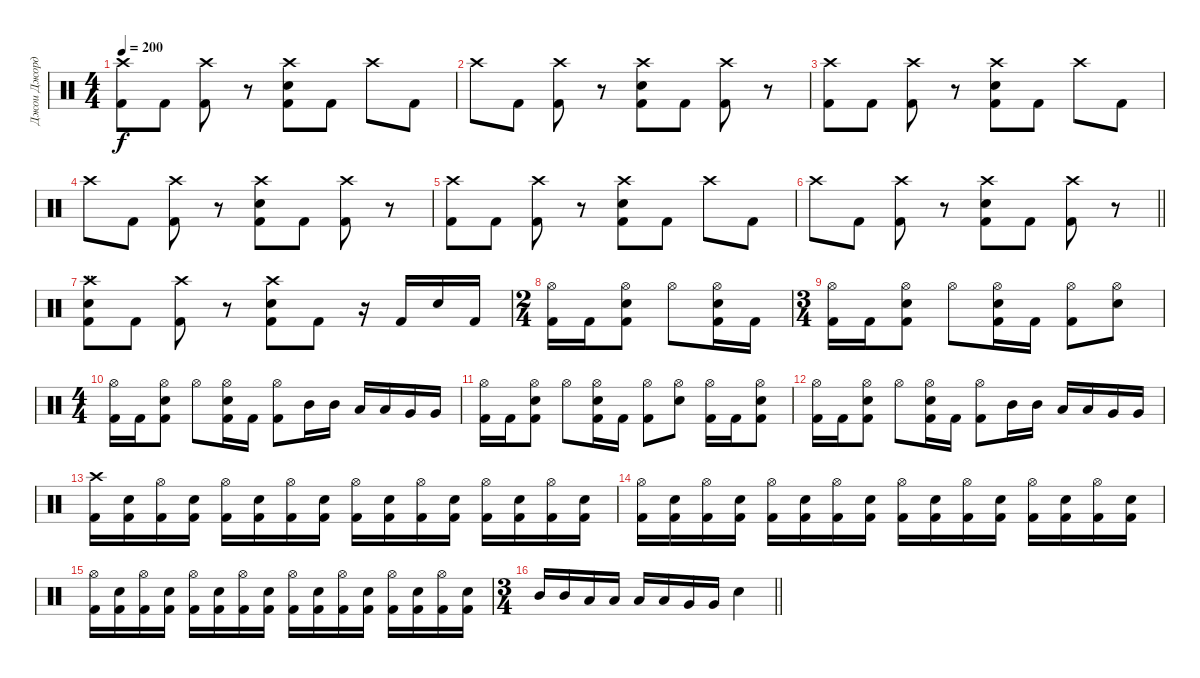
\track ("Джои Джордисон" "Джои Джорд") {instrument percussion}
\staff {score}
\articulation defaults
\ts (4 4)
\tempo 200
\clef neutral
\ks c
("Crash high (hit)" "Kick (hit) 2").8{dy f} "Kick (hit) 2".8 ("Crash high (hit)" "Kick (hit) 2").8 r.8 ("Crash high (hit)" "Electric Snare (hit)" "Kick (hit) 2").8 "Kick (hit) 2".8 "Crash high (hit)".8 "Kick (hit) 2".8 |
"Crash high (hit)".8 "Kick (hit) 2".8 ("Crash high (hit)" "Kick (hit) 2").8 r.8 ("Crash high (hit)" "Electric Snare (hit)" "Kick (hit) 2").8 "Kick (hit) 2".8 ("Crash high (hit)" "Kick (hit) 2").8 r.8 |
("Crash high (hit)" "Kick (hit) 2").8 "Kick (hit) 2".8 ("Crash high (hit)" "Kick (hit) 2").8 r.8 ("Crash high (hit)" "Electric Snare (hit)" "Kick (hit) 2").8 "Kick (hit) 2".8 "Crash high (hit)".8 "Kick (hit) 2".8 |
"Crash high (hit)".8 "Kick (hit) 2".8 ("Crash high (hit)" "Kick (hit) 2").8 r.8 ("Crash high (hit)" "Electric Snare (hit)" "Kick (hit) 2").8 "Kick (hit) 2".8 ("Crash high (hit)" "Kick (hit) 2").8 r.8 |
("Crash high (hit)" "Kick (hit) 2").8 "Kick (hit) 2".8 ("Crash high (hit)" "Kick (hit) 2").8 r.8 ("Crash high (hit)" "Electric Snare (hit)" "Kick (hit) 2").8 "Kick (hit) 2".8 "Crash high (hit)".8 "Kick (hit) 2".8 |
\barLineRight lightlight "Crash high (hit)".8 "Kick (hit) 2".8
("Crash high (hit)" "Kick (hit) 2").8 r.8 ("Crash high (hit)" "Electric Snare (hit)" "Kick (hit) 2").8 "Kick (hit) 2".8 ("Crash high (hit)" "Kick (hit) 2").8 r.8 |
\section ("" "...")
("Crash high (hit)" "Electric Snare (hit)" "Kick (hit) 2").8 "Kick (hit) 2".8 ("Crash high (hit)" "Kick (hit) 2").8 r.8 ("Crash high (hit)" "Electric Snare (hit)" "Kick (hit) 2").8 "Kick (hit) 2".8 r.16 "Kick (hit) 2".16 "Electric Snare (hit)".16 "Kick (hit) 2".16 |
\ts (2 4)
("Hi-Hat (open)" "Kick (hit) 2").16 "Kick (hit) 2".16 ("Hi-Hat (open)" "Electric Snare (hit)" "Kick (hit) 2").8 "Hi-Hat (open)".8 ("Hi-Hat (open)" "Electric Snare (hit)" "Kick (hit) 2").16 "Kick (hit) 2".16 |
\ts (3 4)
("Hi-Hat (open)" "Kick (hit) 2").16 "Kick (hit) 2".16 ("Hi-Hat (open)" "Electric Snare (hit)" "Kick (hit) 2").8 "Hi-Hat (open)".8 ("Hi-Hat (open)" "Electric Snare (hit)" "Kick (hit) 2").16 "Kick (hit) 2".16 ("Hi-Hat (open)" "Kick (hit) 2").8 ("Hi-Hat (open)" "Electric Snare (hit)").8 |
\ts (4 4)
("Hi-Hat (open)" "Kick (hit) 2").16 "Kick (hit) 2".16 ("Hi-Hat (open)" "Electric Snare (hit)" "Kick (hit) 2").8 "Hi-Hat (open)".8 ("Hi-Hat (open)" "Electric Snare (hit)" "Kick (hit) 2").16 "Kick (hit) 2".16 ("Hi-Hat (open)" "Kick (hit) 2").8 "Mid Tom (hit)".16 "Mid Tom (hit)".16 "Low Tom (hit)".16 "Low Tom (hit)".16 "Very Low Tom (hit)".16 "Very Low Tom (hit)".16 |
("Hi-Hat (open)" "Kick (hit) 2").16 "Kick (hit) 2".16 ("Hi-Hat (open)" "Electric Snare (hit)" "Kick (hit) 2").8 "Hi-Hat (open)".8 ("Hi-Hat (open)" "Electric Snare (hit)" "Kick (hit) 2").16 "Kick (hit) 2".16 ("Hi-Hat (open)" "Kick (hit) 2").8 ("Hi-Hat (open)" "Electric Snare (hit)").8 ("Hi-Hat (open)" "Kick (hit) 2").16 "Kick (hit) 2".16 ("Hi-Hat (open)" "Electric Snare (hit)" "Kick (hit) 2").8 |
("Hi-Hat (open)" "Kick (hit) 2").16 "Kick (hit) 2".16 ("Hi-Hat (open)" "Electric Snare (hit)" "Kick (hit) 2").8 "Hi-Hat (open)".8 ("Hi-Hat (open)" "Electric Snare (hit)" "Kick (hit) 2").16 "Kick (hit) 2".16 ("Hi-Hat (open)" "Kick (hit) 2").8 "Mid Tom (hit)".16 "Mid Tom (hit)".16 "Low Tom (hit)".16 "Low Tom (hit)".16 "Very Low Tom (hit)".16 "Very Low Tom (hit)".16 |
("Crash high (hit)" "Kick (hit) 2").16 ("Electric Snare (hit)" "Kick (hit) 2").16 ("Hi-Hat (open)" "Kick (hit) 2").16 ("Electric Snare (hit)" "Kick (hit) 2").16 ("Hi-Hat (open)" "Kick (hit) 2").16 ("Electric Snare (hit)" "Kick (hit) 2").16 ("Hi-Hat (open)" "Kick (hit) 2").16 ("Electric Snare (hit)" "Kick (hit) 2").16 ("Hi-Hat (open)" "Kick (hit) 2").16 ("Electric Snare (hit)" "Kick (hit) 2").16 ("Hi-Hat (open)" "Kick (hit) 2").16 ("Electric Snare (hit)" "Kick (hit) 2").16 ("Hi-Hat (open)" "Kick (hit) 2").16 ("Electric Snare (hit)" "Kick (hit) 2").16 ("Hi-Hat (open)" "Kick (hit) 2").16 ("Electric Snare (hit)" "Kick (hit) 2").16 |
("Hi-Hat (open)" "Kick (hit) 2").16 ("Electric Snare (hit)" "Kick (hit) 2").16 ("Hi-Hat (open)" "Kick (hit) 2").16 ("Electric Snare (hit)" "Kick (hit) 2").16 ("Hi-Hat (open)" "Kick (hit) 2").16 ("Electric Snare (hit)" "Kick (hit) 2").16 ("Hi-Hat (open)" "Kick (hit) 2").16 ("Electric Snare (hit)" "Kick (hit) 2").16 ("Hi-Hat (open)" "Kick (hit) 2").16 ("Electric Snare (hit)" "Kick (hit) 2").16 ("Hi-Hat (open)" "Kick (hit) 2").16 ("Electric Snare (hit)" "Kick (hit) 2").16 ("Hi-Hat (open)" "Kick (hit) 2").16 ("Electric Snare (hit)" "Kick (hit) 2").16 ("Hi-Hat (open)" "Kick (hit) 2").16 ("Electric Snare (hit)" "Kick (hit) 2").16 |
("Hi-Hat (open)" "Kick (hit) 2").16 ("Electric Snare (hit)" "Kick (hit) 2").16 ("Hi-Hat (open)" "Kick (hit) 2").16 ("Electric Snare (hit)" "Kick (hit) 2").16 ("Hi-Hat (open)" "Kick (hit) 2").16 ("Electric Snare (hit)" "Kick (hit) 2").16 ("Hi-Hat (open)" "Kick (hit) 2").16 ("Electric Snare (hit)" "Kick (hit) 2").16 ("Hi-Hat (open)" "Kick (hit) 2").16 ("Electric Snare (hit)" "Kick (hit) 2").16 ("Hi-Hat (open)" "Kick (hit) 2").16 ("Electric Snare (hit)" "Kick (hit) 2").16 ("Hi-Hat (open)" "Kick (hit) 2").16 ("Electric Snare (hit)" "Kick (hit) 2").16 ("Hi-Hat (open)" "Kick (hit) 2").16 ("Electric Snare (hit)" "Kick (hit) 2").16 |
\ts (3 4)
\barLineRight lightlight "Mid Tom (hit)".16 "Mid Tom (hit)".16 "Low Tom (hit)".16 "Low Tom (hit)".16 "Low Tom (hit)".16 "Low Tom (hit)".16 "Very Low Tom (hit)".16 "Very Low Tom (hit)".16 "Electric Snare (hit)".4
